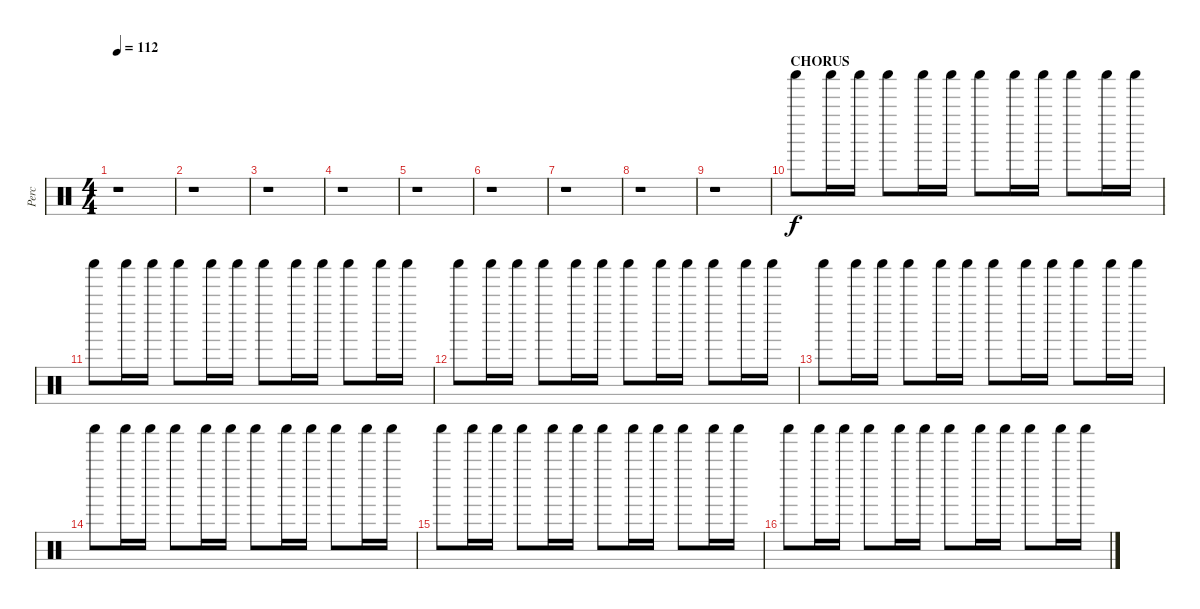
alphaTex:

\track ("Perc" "Perc") {instrument percussion}
\staff {score}
\articulation defaults
\ts (4 4)
\tempo 112
\clef neutral
\ks c
r.1{dy f} |
r.1 |
r.1 |
r.1 |
r.1 |
r.1 |
r.1 |
r.1 |
r.1 |
\section ("" "CHORUS")
"Shaker (hit)".8 "Shaker (hit)".16 "Shaker (hit)".16 "Shaker (hit)".8 "Shaker (hit)".16 "Shaker (hit)".16 "Shaker (hit)".8 "Shaker (hit)".16 "Shaker (hit)".16 "Shaker (hit)".8 "Shaker (hit)".16 "Shaker (hit)".16 |
"Shaker (hit)".8 "Shaker (hit)".16 "Shaker (hit)".16 "Shaker (hit)".8 "Shaker (hit)".16 "Shaker (hit)".16 "Shaker (hit)".8 "Shaker (hit)".16 "Shaker (hit)".16 "Shaker (hit)".8 "Shaker (hit)".16 "Shaker (hit)".16 |
"Shaker (hit)".8 "Shaker (hit)".16 "Shaker (hit)".16 "Shaker (hit)".8 "Shaker (hit)".16 "Shaker (hit)".16 "Shaker (hit)".8 "Shaker (hit)".16 "Shaker (hit)".16 "Shaker (hit)".8 "Shaker (hit)".16 "Shaker (hit)".16 |
"Shaker (hit)".8 "Shaker (hit)".16 "Shaker (hit)".16 "Shaker (hit)".8 "Shaker (hit)".16 "Shaker (hit)".16 "Shaker (hit)".8 "Shaker (hit)".16 "Shaker (hit)".16 "Shaker (hit)".8 "Shaker (hit)".16 "Shaker (hit)".16 |
"Shaker (hit)".8 "Shaker (hit)".16 "Shaker (hit)".16 "Shaker (hit)".8 "Shaker (hit)".16 "Shaker (hit)".16 "Shaker (hit)".8 "Shaker (hit)".16 "Shaker (hit)".16 "Shaker (hit)".8 "Shaker (hit)".16 "Shaker (hit)".16 |
"Shaker (hit)".8 "Shaker (hit)".16 "Shaker (hit)".16 "Shaker (hit)".8 "Shaker (hit)".16 "Shaker (hit)".16 "Shaker (hit)".8 "Shaker (hit)".16 "Shaker (hit)".16 "Shaker (hit)".8 "Shaker (hit)".16 "Shaker (hit)".16 |
"Shaker (hit)".8 "Shaker (hit)".16 "Shaker (hit)".16 "Shaker (hit)".8 "Shaker (hit)".16 "Shaker (hit)".16 "Shaker (hit)".8 "Shaker (hit)".16 "Shaker (hit)".16 "Shaker (hit)".8 "Shaker (hit)".16 "Shaker (hit)".16
